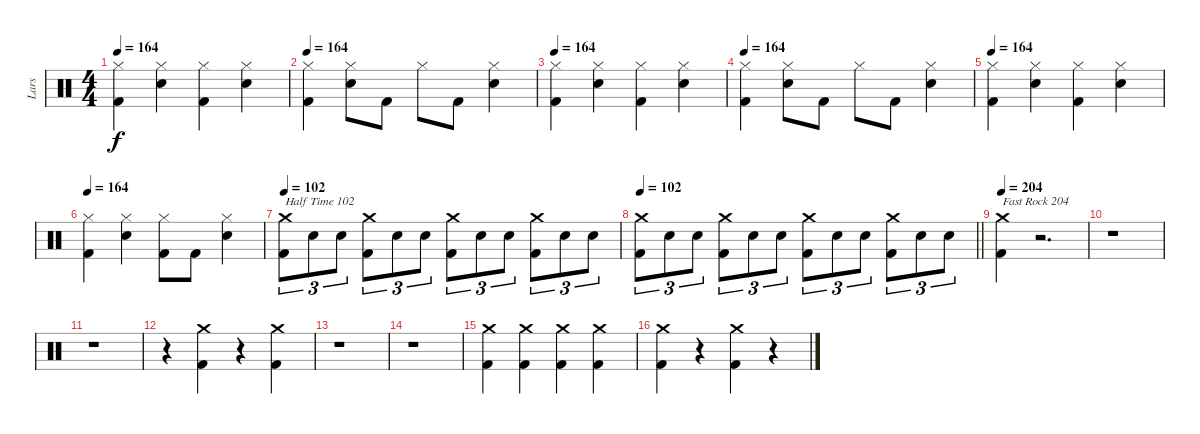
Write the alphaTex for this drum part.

\track ("Lars" "Lars") {instrument percussion}
\staff {score}
\articulation defaults
\ts (4 4)
\tempo 164
\clef neutral
\ks c
("Hi-Hat (closed)" "Kick (hit) 2").4{dy f} ("Snare (hit) 2" "Hi-Hat (closed)").4 ("Kick (hit) 2" "Hi-Hat (closed)").4 ("Hi-Hat (closed)" "Snare (hit) 2").4 |
\tempo 164
("Kick (hit) 2" "Hi-Hat (closed)").4 ("Snare (hit) 2" "Hi-Hat (closed)").8 "Kick (hit) 2".8 "Hi-Hat (closed)".8 "Kick (hit) 2".8 ("Snare (hit) 2" "Hi-Hat (closed)").4 |
\tempo 164
("Hi-Hat (closed)" "Kick (hit) 2").4 ("Snare (hit) 2" "Hi-Hat (closed)").4 ("Kick (hit) 2" "Hi-Hat (closed)").4 ("Hi-Hat (closed)" "Snare (hit) 2").4 |
\tempo 164
("Kick (hit) 2" "Hi-Hat (closed)").4 ("Snare (hit) 2" "Hi-Hat (closed)").8 "Kick (hit) 2".8 "Hi-Hat (closed)".8 "Kick (hit) 2".8 ("Snare (hit) 2" "Hi-Hat (closed)").4 |
\tempo 164
("Hi-Hat (closed)" "Kick (hit) 2").4 ("Snare (hit) 2" "Hi-Hat (closed)").4 ("Kick (hit) 2" "Hi-Hat (closed)").4 ("Hi-Hat (closed)" "Snare (hit) 2").4 |
\tempo 164
("Kick (hit) 2" "Hi-Hat (closed)").4 ("Snare (hit) 2" "Hi-Hat (closed)").4 ("Kick (hit) 2" "Hi-Hat (closed)").8 "Kick (hit) 2".8 ("Snare (hit) 2" "Hi-Hat (closed)").4 |
\tempo 102
("Kick (hit) 2" "Crash medium (hit)").8{tu (3 2) txt "Half Time 102"} "Snare (hit) 2".8{tu (3 2)} "Snare (hit) 2".8{tu (3 2)} ("Kick (hit) 2" "Crash medium (hit)").8{tu (3 2)} "Snare (hit) 2".8{tu (3 2)} "Snare (hit) 2".8{tu (3 2)} ("Kick (hit) 2" "Crash medium (hit)").8{tu (3 2)} "Snare (hit) 2".8{tu (3 2)} "Snare (hit) 2".8{tu (3 2)} ("Kick (hit) 2" "Crash medium (hit)").8{tu (3 2)} "Snare (hit) 2".8{tu (3 2)} "Snare (hit) 2".8{tu (3 2)} |
\tempo 102
\barLineRight lightlight
("Kick (hit) 2" "Crash medium (hit)").8{tu (3 2)} "Snare (hit) 2".8{tu (3 2)} "Snare (hit) 2".8{tu (3 2)} ("Kick (hit) 2" "Crash medium (hit)").8{tu (3 2)} "Snare (hit) 2".8{tu (3 2)} "Snare (hit) 2".8{tu (3 2)} ("Kick (hit) 2" "Crash medium (hit)").8{tu (3 2)} "Snare (hit) 2".8{tu (3 2)} "Snare (hit) 2".8{tu (3 2)} ("Kick (hit) 2" "Crash medium (hit)").8{tu (3 2)} "Snare (hit) 2".8{tu (3 2)} "Snare (hit) 2".8{tu (3 2)} |
\tempo 204
("Kick (hit) 2" "Crash medium (hit)").4{txt "Fast Rock 204"} r.2{d} |
r.1 |
r.1 |
r.4 ("Kick (hit) 2" "Crash medium (hit)").4 r.4 ("Kick (hit) 2" "Crash medium (hit)").4 |
r.1 |
r.1 |
("Kick (hit) 2" "Crash medium (hit)").4 ("Kick (hit) 2" "Crash medium (hit)").4 ("Kick (hit) 2" "Crash medium (hit)").4 ("Kick (hit) 2" "Crash medium (hit)").4 |
("Crash medium (hit)" "Kick (hit) 2").4 r.4 ("Crash medium (hit)" "Kick (hit) 2").4 r.4
